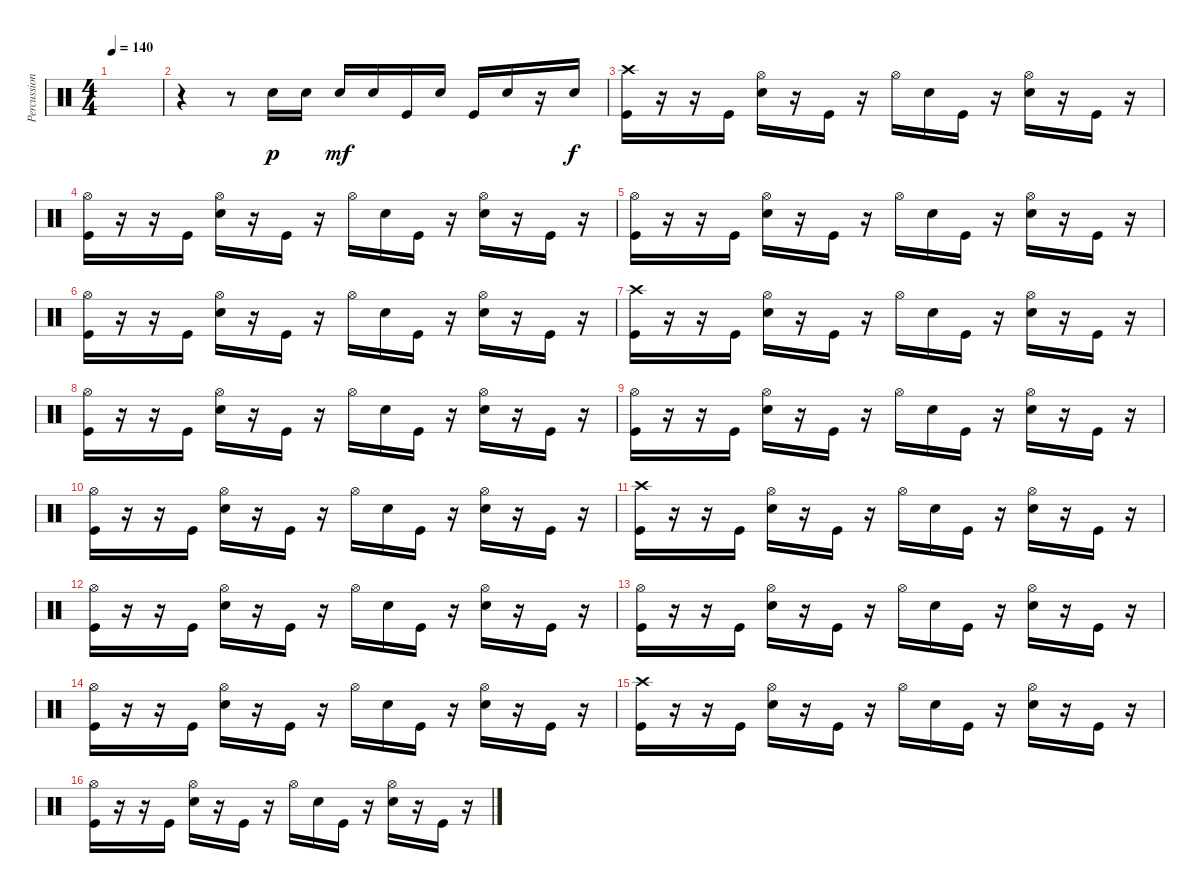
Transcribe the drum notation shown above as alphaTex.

\track ("Percussion" "Percussion") {instrument percussion}
\staff {score}
\articulation defaults
\ts (4 4)
\tempo 140
\clef neutral
\ks c
|
r.4 r.8 "Electric Snare (hit)".16{dy p} "Electric Snare (hit)".16 "Electric Snare (hit)".16{dy mf} "Electric Snare (hit)".16 "Kick (hit)".16 "Electric Snare (hit)".16 "Kick (hit)".16 "Electric Snare (hit)".16 r.16 "Electric Snare (hit)".16{dy f} |
("Crash high (hit)" "Kick (hit)").16 r.16 r.16 "Kick (hit)".16 ("Hi-Hat (open)" "Electric Snare (hit)").16 r.16 "Kick (hit)".16 r.16 "Hi-Hat (open)".16 "Electric Snare (hit)".16 "Kick (hit)".16 r.16 ("Hi-Hat (open)" "Electric Snare (hit)").16 r.16 "Kick (hit)".16 r.16 |
("Hi-Hat (open)" "Kick (hit)").16 r.16 r.16 "Kick (hit)".16 ("Hi-Hat (open)" "Electric Snare (hit)").16 r.16 "Kick (hit)".16 r.16 "Hi-Hat (open)".16 "Electric Snare (hit)".16 "Kick (hit)".16 r.16 ("Hi-Hat (open)" "Electric Snare (hit)").16 r.16 "Kick (hit)".16 r.16 |
("Hi-Hat (open)" "Kick (hit)").16 r.16 r.16 "Kick (hit)".16 ("Hi-Hat (open)" "Electric Snare (hit)").16 r.16 "Kick (hit)".16 r.16 "Hi-Hat (open)".16 "Electric Snare (hit)".16 "Kick (hit)".16 r.16 ("Hi-Hat (open)" "Electric Snare (hit)").16 r.16 "Kick (hit)".16 r.16 |
("Hi-Hat (open)" "Kick (hit)").16 r.16 r.16 "Kick (hit)".16 ("Hi-Hat (open)" "Electric Snare (hit)").16 r.16 "Kick (hit)".16 r.16 "Hi-Hat (open)".16 "Electric Snare (hit)".16 "Kick (hit)".16 r.16 ("Hi-Hat (open)" "Electric Snare (hit)").16 r.16 "Kick (hit)".16 r.16 |
("Crash high (hit)" "Kick (hit)").16 r.16 r.16 "Kick (hit)".16 ("Hi-Hat (open)" "Electric Snare (hit)").16 r.16 "Kick (hit)".16 r.16 "Hi-Hat (open)".16 "Electric Snare (hit)".16 "Kick (hit)".16 r.16 ("Hi-Hat (open)" "Electric Snare (hit)").16 r.16 "Kick (hit)".16 r.16 |
("Hi-Hat (open)" "Kick (hit)").16 r.16 r.16 "Kick (hit)".16 ("Hi-Hat (open)" "Electric Snare (hit)").16 r.16 "Kick (hit)".16 r.16 "Hi-Hat (open)".16 "Electric Snare (hit)".16 "Kick (hit)".16 r.16 ("Hi-Hat (open)" "Electric Snare (hit)").16 r.16 "Kick (hit)".16 r.16 |
("Hi-Hat (open)" "Kick (hit)").16 r.16 r.16 "Kick (hit)".16 ("Hi-Hat (open)" "Electric Snare (hit)").16 r.16 "Kick (hit)".16 r.16 "Hi-Hat (open)".16 "Electric Snare (hit)".16 "Kick (hit)".16 r.16 ("Hi-Hat (open)" "Electric Snare (hit)").16 r.16 "Kick (hit)".16 r.16 |
("Hi-Hat (open)" "Kick (hit)").16 r.16 r.16 "Kick (hit)".16 ("Hi-Hat (open)" "Electric Snare (hit)").16 r.16 "Kick (hit)".16 r.16 "Hi-Hat (open)".16 "Electric Snare (hit)".16 "Kick (hit)".16 r.16 ("Hi-Hat (open)" "Electric Snare (hit)").16 r.16 "Kick (hit)".16 r.16 |
("Crash high (hit)" "Kick (hit)").16 r.16 r.16 "Kick (hit)".16 ("Hi-Hat (open)" "Electric Snare (hit)").16 r.16 "Kick (hit)".16 r.16 "Hi-Hat (open)".16 "Electric Snare (hit)".16 "Kick (hit)".16 r.16 ("Hi-Hat (open)" "Electric Snare (hit)").16 r.16 "Kick (hit)".16 r.16 |
("Hi-Hat (open)" "Kick (hit)").16 r.16 r.16 "Kick (hit)".16 ("Hi-Hat (open)" "Electric Snare (hit)").16 r.16 "Kick (hit)".16 r.16 "Hi-Hat (open)".16 "Electric Snare (hit)".16 "Kick (hit)".16 r.16 ("Hi-Hat (open)" "Electric Snare (hit)").16 r.16 "Kick (hit)".16 r.16 |
("Hi-Hat (open)" "Kick (hit)").16 r.16 r.16 "Kick (hit)".16 ("Hi-Hat (open)" "Electric Snare (hit)").16 r.16 "Kick (hit)".16 r.16 "Hi-Hat (open)".16 "Electric Snare (hit)".16 "Kick (hit)".16 r.16 ("Hi-Hat (open)" "Electric Snare (hit)").16 r.16 "Kick (hit)".16 r.16 |
("Hi-Hat (open)" "Kick (hit)").16 r.16 r.16 "Kick (hit)".16 ("Hi-Hat (open)" "Electric Snare (hit)").16 r.16 "Kick (hit)".16 r.16 "Hi-Hat (open)".16 "Electric Snare (hit)".16 "Kick (hit)".16 r.16 ("Hi-Hat (open)" "Electric Snare (hit)").16 r.16 "Kick (hit)".16 r.16 |
("Crash high (hit)" "Kick (hit)").16 r.16 r.16 "Kick (hit)".16 ("Hi-Hat (open)" "Electric Snare (hit)").16 r.16 "Kick (hit)".16 r.16 "Hi-Hat (open)".16 "Electric Snare (hit)".16 "Kick (hit)".16 r.16 ("Hi-Hat (open)" "Electric Snare (hit)").16 r.16 "Kick (hit)".16 r.16 |
("Hi-Hat (open)" "Kick (hit)").16 r.16 r.16 "Kick (hit)".16 ("Hi-Hat (open)" "Electric Snare (hit)").16 r.16 "Kick (hit)".16 r.16 "Hi-Hat (open)".16 "Electric Snare (hit)".16 "Kick (hit)".16 r.16 ("Hi-Hat (open)" "Electric Snare (hit)").16 r.16 "Kick (hit)".16 r.16
